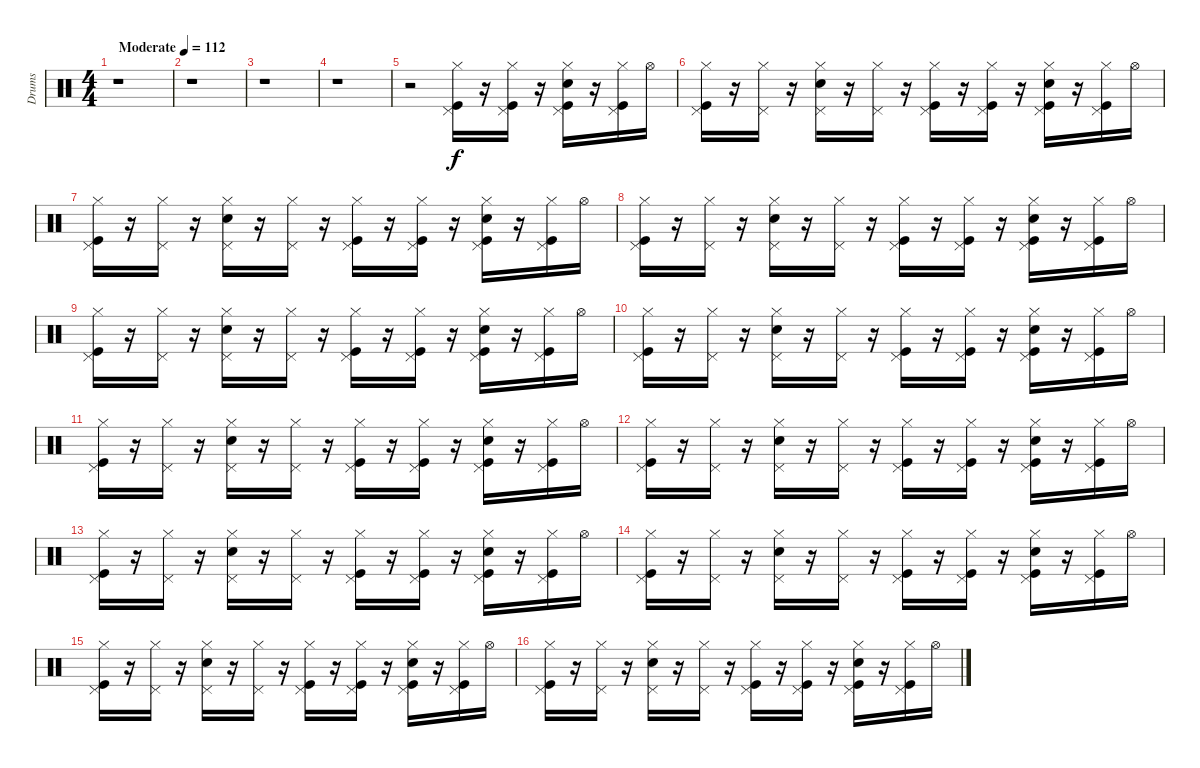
\track ("Drums" "Drums") {instrument percussion}
\staff {score}
\articulation defaults
\ts (4 4)
\tempo (112 "Moderate")
\clef neutral
\ks c
r.1{dy f} |
r.1 |
r.1 |
r.1 |
r.2 ("Hi-Hat (closed)" "Kick (hit)" "Pedal Hi-Hat (hit)").16 r.16 ("Hi-Hat (closed)" "Kick (hit)" "Pedal Hi-Hat (hit)").16 r.16 ("Hi-Hat (closed)" "Kick (hit)" "Pedal Hi-Hat (hit)" "Snare (hit) 2").16 r.16 ("Hi-Hat (closed)" "Kick (hit)" "Pedal Hi-Hat (hit)").16 "Hi-Hat (open)".16 |
("Hi-Hat (closed)" "Kick (hit)" "Pedal Hi-Hat (hit)").16 r.16 ("Pedal Hi-Hat (hit)" "Hi-Hat (closed)").16 r.16 ("Hi-Hat (closed)" "Pedal Hi-Hat (hit)" "Snare (hit) 2").16 r.16 ("Hi-Hat (closed)" "Pedal Hi-Hat (hit)").16 r.16 ("Hi-Hat (closed)" "Pedal Hi-Hat (hit)" "Kick (hit)").16 r.16 ("Hi-Hat (closed)" "Pedal Hi-Hat (hit)" "Kick (hit)").16 r.16 ("Hi-Hat (closed)" "Pedal Hi-Hat (hit)" "Kick (hit)" "Snare (hit) 2").16 r.16 ("Hi-Hat (closed)" "Kick (hit)" "Pedal Hi-Hat (hit)").16 "Hi-Hat (open)".16 |
("Hi-Hat (closed)" "Kick (hit)" "Pedal Hi-Hat (hit)").16 r.16 ("Pedal Hi-Hat (hit)" "Hi-Hat (closed)").16 r.16 ("Hi-Hat (closed)" "Pedal Hi-Hat (hit)" "Snare (hit) 2").16 r.16 ("Hi-Hat (closed)" "Pedal Hi-Hat (hit)").16 r.16 ("Hi-Hat (closed)" "Pedal Hi-Hat (hit)" "Kick (hit)").16 r.16 ("Hi-Hat (closed)" "Pedal Hi-Hat (hit)" "Kick (hit)").16 r.16 ("Hi-Hat (closed)" "Pedal Hi-Hat (hit)" "Kick (hit)" "Snare (hit) 2").16 r.16 ("Hi-Hat (closed)" "Kick (hit)" "Pedal Hi-Hat (hit)").16 "Hi-Hat (open)".16 |
("Hi-Hat (closed)" "Kick (hit)" "Pedal Hi-Hat (hit)").16 r.16 ("Pedal Hi-Hat (hit)" "Hi-Hat (closed)").16 r.16 ("Hi-Hat (closed)" "Pedal Hi-Hat (hit)" "Snare (hit) 2").16 r.16 ("Hi-Hat (closed)" "Pedal Hi-Hat (hit)").16 r.16 ("Hi-Hat (closed)" "Pedal Hi-Hat (hit)" "Kick (hit)").16 r.16 ("Hi-Hat (closed)" "Pedal Hi-Hat (hit)" "Kick (hit)").16 r.16 ("Hi-Hat (closed)" "Pedal Hi-Hat (hit)" "Kick (hit)" "Snare (hit) 2").16 r.16 ("Hi-Hat (closed)" "Kick (hit)" "Pedal Hi-Hat (hit)").16 "Hi-Hat (open)".16 |
("Hi-Hat (closed)" "Kick (hit)" "Pedal Hi-Hat (hit)").16 r.16 ("Pedal Hi-Hat (hit)" "Hi-Hat (closed)").16 r.16 ("Hi-Hat (closed)" "Pedal Hi-Hat (hit)" "Snare (hit) 2").16 r.16 ("Hi-Hat (closed)" "Pedal Hi-Hat (hit)").16 r.16 ("Hi-Hat (closed)" "Pedal Hi-Hat (hit)" "Kick (hit)").16 r.16 ("Hi-Hat (closed)" "Pedal Hi-Hat (hit)" "Kick (hit)").16 r.16 ("Hi-Hat (closed)" "Pedal Hi-Hat (hit)" "Kick (hit)" "Snare (hit) 2").16 r.16 ("Hi-Hat (closed)" "Kick (hit)" "Pedal Hi-Hat (hit)").16 "Hi-Hat (open)".16 |
("Hi-Hat (closed)" "Kick (hit)" "Pedal Hi-Hat (hit)").16 r.16 ("Pedal Hi-Hat (hit)" "Hi-Hat (closed)").16 r.16 ("Hi-Hat (closed)" "Pedal Hi-Hat (hit)" "Snare (hit) 2").16 r.16 ("Hi-Hat (closed)" "Pedal Hi-Hat (hit)").16 r.16 ("Hi-Hat (closed)" "Pedal Hi-Hat (hit)" "Kick (hit)").16 r.16 ("Hi-Hat (closed)" "Pedal Hi-Hat (hit)" "Kick (hit)").16 r.16 ("Hi-Hat (closed)" "Pedal Hi-Hat (hit)" "Kick (hit)" "Snare (hit) 2").16 r.16 ("Hi-Hat (closed)" "Kick (hit)" "Pedal Hi-Hat (hit)").16 "Hi-Hat (open)".16 |
("Hi-Hat (closed)" "Kick (hit)" "Pedal Hi-Hat (hit)").16 r.16 ("Pedal Hi-Hat (hit)" "Hi-Hat (closed)").16 r.16 ("Hi-Hat (closed)" "Pedal Hi-Hat (hit)" "Snare (hit) 2").16 r.16 ("Hi-Hat (closed)" "Pedal Hi-Hat (hit)").16 r.16 ("Hi-Hat (closed)" "Pedal Hi-Hat (hit)" "Kick (hit)").16 r.16 ("Hi-Hat (closed)" "Pedal Hi-Hat (hit)" "Kick (hit)").16 r.16 ("Hi-Hat (closed)" "Pedal Hi-Hat (hit)" "Kick (hit)" "Snare (hit) 2").16 r.16 ("Hi-Hat (closed)" "Kick (hit)" "Pedal Hi-Hat (hit)").16 "Hi-Hat (open)".16 |
("Hi-Hat (closed)" "Kick (hit)" "Pedal Hi-Hat (hit)").16 r.16 ("Pedal Hi-Hat (hit)" "Hi-Hat (closed)").16 r.16 ("Hi-Hat (closed)" "Pedal Hi-Hat (hit)" "Snare (hit) 2").16 r.16 ("Hi-Hat (closed)" "Pedal Hi-Hat (hit)").16 r.16 ("Hi-Hat (closed)" "Pedal Hi-Hat (hit)" "Kick (hit)").16 r.16 ("Hi-Hat (closed)" "Pedal Hi-Hat (hit)" "Kick (hit)").16 r.16 ("Hi-Hat (closed)" "Pedal Hi-Hat (hit)" "Kick (hit)" "Snare (hit) 2").16 r.16 ("Hi-Hat (closed)" "Kick (hit)" "Pedal Hi-Hat (hit)").16 "Hi-Hat (open)".16 |
("Hi-Hat (closed)" "Kick (hit)" "Pedal Hi-Hat (hit)").16 r.16 ("Pedal Hi-Hat (hit)" "Hi-Hat (closed)").16 r.16 ("Hi-Hat (closed)" "Pedal Hi-Hat (hit)" "Snare (hit) 2").16 r.16 ("Hi-Hat (closed)" "Pedal Hi-Hat (hit)").16 r.16 ("Hi-Hat (closed)" "Pedal Hi-Hat (hit)" "Kick (hit)").16 r.16 ("Hi-Hat (closed)" "Pedal Hi-Hat (hit)" "Kick (hit)").16 r.16 ("Hi-Hat (closed)" "Pedal Hi-Hat (hit)" "Kick (hit)" "Snare (hit) 2").16 r.16 ("Hi-Hat (closed)" "Kick (hit)" "Pedal Hi-Hat (hit)").16 "Hi-Hat (open)".16 |
("Hi-Hat (closed)" "Kick (hit)" "Pedal Hi-Hat (hit)").16 r.16 ("Pedal Hi-Hat (hit)" "Hi-Hat (closed)").16 r.16 ("Hi-Hat (closed)" "Pedal Hi-Hat (hit)" "Snare (hit) 2").16 r.16 ("Hi-Hat (closed)" "Pedal Hi-Hat (hit)").16 r.16 ("Hi-Hat (closed)" "Pedal Hi-Hat (hit)" "Kick (hit)").16 r.16 ("Hi-Hat (closed)" "Pedal Hi-Hat (hit)" "Kick (hit)").16 r.16 ("Hi-Hat (closed)" "Pedal Hi-Hat (hit)" "Kick (hit)" "Snare (hit) 2").16 r.16 ("Hi-Hat (closed)" "Kick (hit)" "Pedal Hi-Hat (hit)").16 "Hi-Hat (open)".16 |
("Hi-Hat (closed)" "Kick (hit)" "Pedal Hi-Hat (hit)").16 r.16 ("Pedal Hi-Hat (hit)" "Hi-Hat (closed)").16 r.16 ("Hi-Hat (closed)" "Pedal Hi-Hat (hit)" "Snare (hit) 2").16 r.16 ("Hi-Hat (closed)" "Pedal Hi-Hat (hit)").16 r.16 ("Hi-Hat (closed)" "Pedal Hi-Hat (hit)" "Kick (hit)").16 r.16 ("Hi-Hat (closed)" "Pedal Hi-Hat (hit)" "Kick (hit)").16 r.16 ("Hi-Hat (closed)" "Pedal Hi-Hat (hit)" "Kick (hit)" "Snare (hit) 2").16 r.16 ("Hi-Hat (closed)" "Kick (hit)" "Pedal Hi-Hat (hit)").16 "Hi-Hat (open)".16 |
("Hi-Hat (closed)" "Kick (hit)" "Pedal Hi-Hat (hit)").16 r.16 ("Pedal Hi-Hat (hit)" "Hi-Hat (closed)").16 r.16 ("Hi-Hat (closed)" "Pedal Hi-Hat (hit)" "Snare (hit) 2").16 r.16 ("Hi-Hat (closed)" "Pedal Hi-Hat (hit)").16 r.16 ("Hi-Hat (closed)" "Pedal Hi-Hat (hit)" "Kick (hit)").16 r.16 ("Hi-Hat (closed)" "Pedal Hi-Hat (hit)" "Kick (hit)").16 r.16 ("Hi-Hat (closed)" "Pedal Hi-Hat (hit)" "Kick (hit)" "Snare (hit) 2").16 r.16 ("Hi-Hat (closed)" "Kick (hit)" "Pedal Hi-Hat (hit)").16 "Hi-Hat (open)".16
